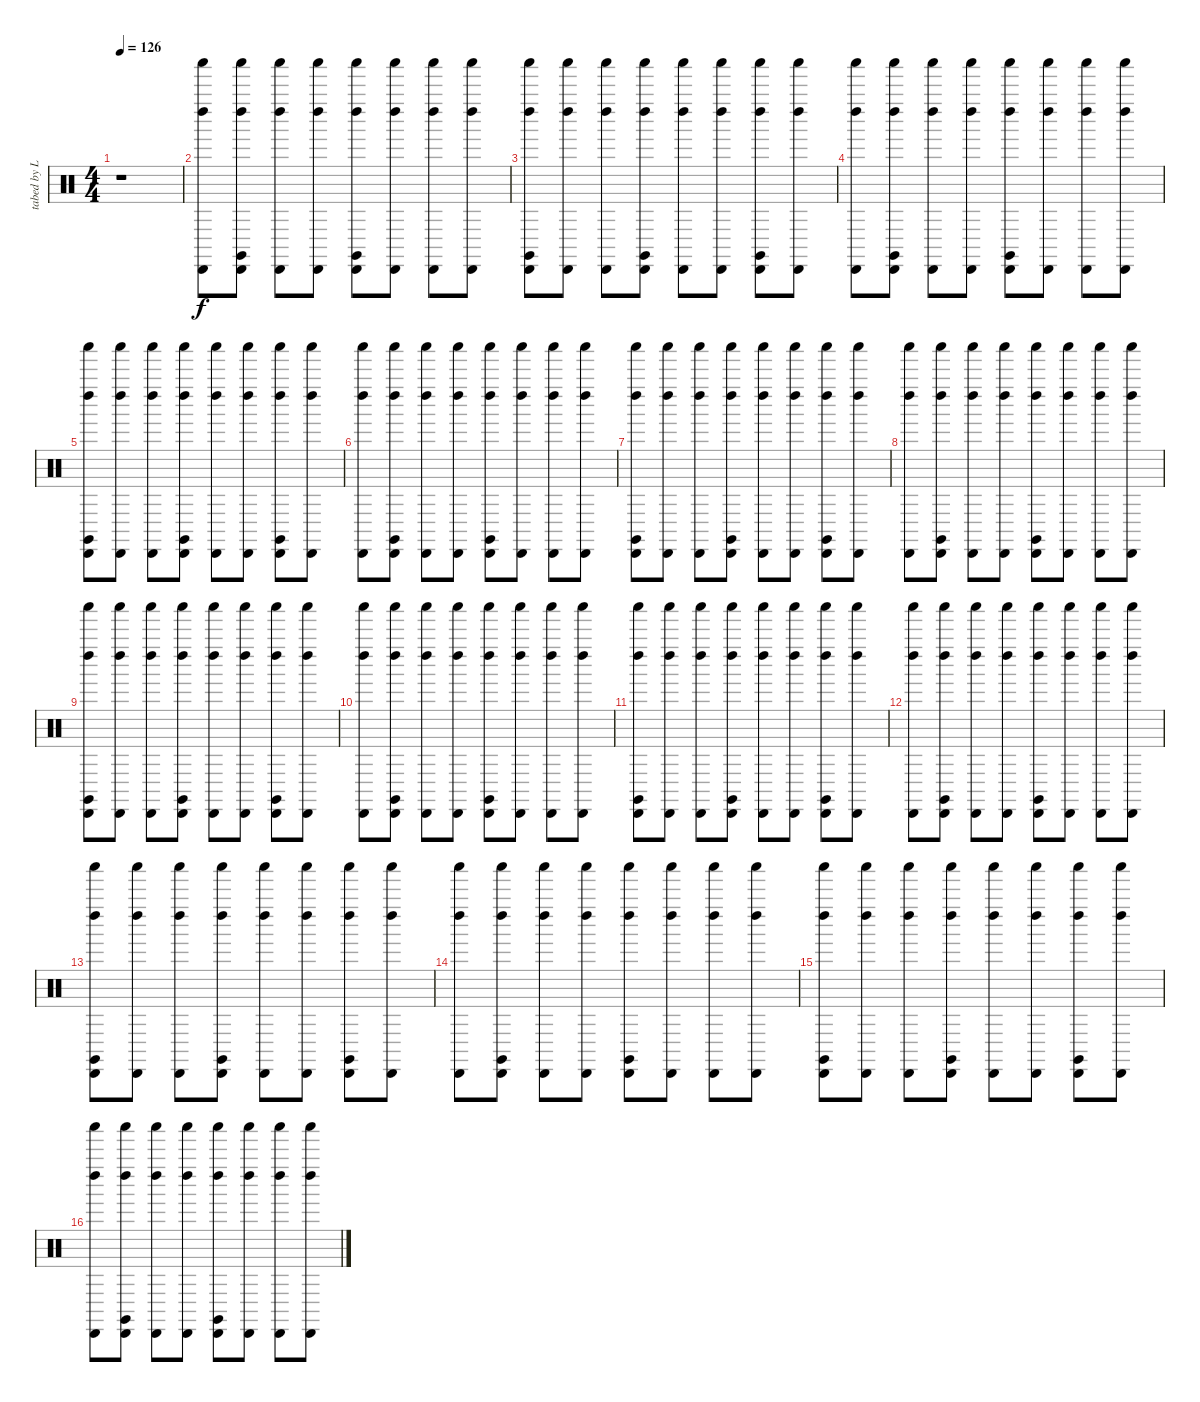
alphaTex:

\track ("tabed by Leonid" "tabed by L") {instrument percussion}
\staff {score}
\articulation defaults
\ts (4 4)
\tempo 126
\clef neutral
\ks c
r.1{dy f} |
("Cabasa (hit)" "Left Maraca (hit)" "Shaker (hit)").8 ("Cabasa (hit)" "Left Maraca (hit)" "Shaker (hit)" "Claves (hit)").8 ("Cabasa (hit)" "Left Maraca (hit)" "Shaker (hit)").8 ("Cabasa (hit)" "Left Maraca (hit)" "Shaker (hit)").8 ("Cabasa (hit)" "Left Maraca (hit)" "Shaker (hit)" "Claves (hit)").8 ("Cabasa (hit)" "Left Maraca (hit)" "Shaker (hit)").8 ("Cabasa (hit)" "Left Maraca (hit)" "Shaker (hit)").8 ("Cabasa (hit)" "Left Maraca (hit)" "Shaker (hit)").8 |
("Cabasa (hit)" "Left Maraca (hit)" "Shaker (hit)" "Claves (hit)").8 ("Cabasa (hit)" "Left Maraca (hit)" "Shaker (hit)").8 ("Cabasa (hit)" "Left Maraca (hit)" "Shaker (hit)").8 ("Cabasa (hit)" "Left Maraca (hit)" "Shaker (hit)" "Claves (hit)").8 ("Cabasa (hit)" "Left Maraca (hit)" "Shaker (hit)").8 ("Cabasa (hit)" "Left Maraca (hit)" "Shaker (hit)").8 ("Cabasa (hit)" "Left Maraca (hit)" "Shaker (hit)" "Claves (hit)").8 ("Cabasa (hit)" "Left Maraca (hit)" "Shaker (hit)").8 |
("Left Maraca (hit)" "Shaker (hit)" "Cabasa (hit)").8 ("Left Maraca (hit)" "Shaker (hit)" "Cabasa (hit)" "Claves (hit)").8 ("Left Maraca (hit)" "Shaker (hit)" "Cabasa (hit)").8 ("Left Maraca (hit)" "Shaker (hit)" "Cabasa (hit)").8 ("Left Maraca (hit)" "Shaker (hit)" "Cabasa (hit)" "Claves (hit)").8 ("Left Maraca (hit)" "Shaker (hit)" "Cabasa (hit)").8 ("Left Maraca (hit)" "Shaker (hit)" "Cabasa (hit)").8 ("Left Maraca (hit)" "Shaker (hit)" "Cabasa (hit)").8 |
("Left Maraca (hit)" "Shaker (hit)" "Cabasa (hit)" "Claves (hit)").8 ("Left Maraca (hit)" "Shaker (hit)" "Cabasa (hit)").8 ("Left Maraca (hit)" "Shaker (hit)" "Cabasa (hit)").8 ("Left Maraca (hit)" "Shaker (hit)" "Cabasa (hit)" "Claves (hit)").8 ("Left Maraca (hit)" "Shaker (hit)" "Cabasa (hit)").8 ("Left Maraca (hit)" "Shaker (hit)" "Cabasa (hit)").8 ("Left Maraca (hit)" "Shaker (hit)" "Cabasa (hit)" "Claves (hit)").8 ("Left Maraca (hit)" "Shaker (hit)" "Cabasa (hit)").8 |
("Shaker (hit)" "Cabasa (hit)" "Left Maraca (hit)").8 ("Shaker (hit)" "Cabasa (hit)" "Left Maraca (hit)" "Claves (hit)").8 ("Shaker (hit)" "Cabasa (hit)" "Left Maraca (hit)").8 ("Shaker (hit)" "Cabasa (hit)" "Left Maraca (hit)").8 ("Shaker (hit)" "Cabasa (hit)" "Left Maraca (hit)" "Claves (hit)").8 ("Shaker (hit)" "Cabasa (hit)" "Left Maraca (hit)").8 ("Shaker (hit)" "Cabasa (hit)" "Left Maraca (hit)").8 ("Shaker (hit)" "Cabasa (hit)" "Left Maraca (hit)").8 |
("Shaker (hit)" "Cabasa (hit)" "Left Maraca (hit)" "Claves (hit)").8 ("Shaker (hit)" "Cabasa (hit)" "Left Maraca (hit)").8 ("Shaker (hit)" "Cabasa (hit)" "Left Maraca (hit)").8 ("Shaker (hit)" "Cabasa (hit)" "Left Maraca (hit)" "Claves (hit)").8 ("Shaker (hit)" "Cabasa (hit)" "Left Maraca (hit)").8 ("Shaker (hit)" "Cabasa (hit)" "Left Maraca (hit)").8 ("Shaker (hit)" "Cabasa (hit)" "Left Maraca (hit)" "Claves (hit)").8 ("Shaker (hit)" "Cabasa (hit)" "Left Maraca (hit)").8 |
("Cabasa (hit)" "Left Maraca (hit)" "Shaker (hit)").8 ("Cabasa (hit)" "Left Maraca (hit)" "Shaker (hit)" "Claves (hit)").8 ("Cabasa (hit)" "Left Maraca (hit)" "Shaker (hit)").8 ("Cabasa (hit)" "Left Maraca (hit)" "Shaker (hit)").8 ("Cabasa (hit)" "Left Maraca (hit)" "Shaker (hit)" "Claves (hit)").8 ("Cabasa (hit)" "Left Maraca (hit)" "Shaker (hit)").8 ("Cabasa (hit)" "Left Maraca (hit)" "Shaker (hit)").8 ("Cabasa (hit)" "Left Maraca (hit)" "Shaker (hit)").8 |
("Cabasa (hit)" "Left Maraca (hit)" "Shaker (hit)" "Claves (hit)").8 ("Cabasa (hit)" "Left Maraca (hit)" "Shaker (hit)").8 ("Cabasa (hit)" "Left Maraca (hit)" "Shaker (hit)").8 ("Cabasa (hit)" "Left Maraca (hit)" "Shaker (hit)" "Claves (hit)").8 ("Cabasa (hit)" "Left Maraca (hit)" "Shaker (hit)").8 ("Cabasa (hit)" "Left Maraca (hit)" "Shaker (hit)").8 ("Cabasa (hit)" "Left Maraca (hit)" "Shaker (hit)" "Claves (hit)").8 ("Cabasa (hit)" "Left Maraca (hit)" "Shaker (hit)").8 |
("Left Maraca (hit)" "Cabasa (hit)" "Shaker (hit)").8 ("Left Maraca (hit)" "Cabasa (hit)" "Shaker (hit)" "Claves (hit)").8 ("Left Maraca (hit)" "Cabasa (hit)" "Shaker (hit)").8 ("Left Maraca (hit)" "Cabasa (hit)" "Shaker (hit)").8 ("Left Maraca (hit)" "Cabasa (hit)" "Shaker (hit)" "Claves (hit)").8 ("Left Maraca (hit)" "Cabasa (hit)" "Shaker (hit)").8 ("Left Maraca (hit)" "Cabasa (hit)" "Shaker (hit)").8 ("Left Maraca (hit)" "Cabasa (hit)" "Shaker (hit)").8 |
("Left Maraca (hit)" "Cabasa (hit)" "Shaker (hit)" "Claves (hit)").8 ("Left Maraca (hit)" "Cabasa (hit)" "Shaker (hit)").8 ("Left Maraca (hit)" "Cabasa (hit)" "Shaker (hit)").8 ("Left Maraca (hit)" "Cabasa (hit)" "Shaker (hit)" "Claves (hit)").8 ("Left Maraca (hit)" "Cabasa (hit)" "Shaker (hit)").8 ("Left Maraca (hit)" "Cabasa (hit)" "Shaker (hit)").8 ("Left Maraca (hit)" "Cabasa (hit)" "Shaker (hit)" "Claves (hit)").8 ("Left Maraca (hit)" "Cabasa (hit)" "Shaker (hit)").8 |
("Shaker (hit)" "Cabasa (hit)" "Left Maraca (hit)").8 ("Shaker (hit)" "Cabasa (hit)" "Left Maraca (hit)" "Claves (hit)").8 ("Shaker (hit)" "Cabasa (hit)" "Left Maraca (hit)").8 ("Shaker (hit)" "Cabasa (hit)" "Left Maraca (hit)").8 ("Shaker (hit)" "Cabasa (hit)" "Left Maraca (hit)" "Claves (hit)").8 ("Shaker (hit)" "Cabasa (hit)" "Left Maraca (hit)").8 ("Shaker (hit)" "Cabasa (hit)" "Left Maraca (hit)").8 ("Shaker (hit)" "Cabasa (hit)" "Left Maraca (hit)").8 |
("Shaker (hit)" "Cabasa (hit)" "Left Maraca (hit)" "Claves (hit)").8 ("Shaker (hit)" "Cabasa (hit)" "Left Maraca (hit)").8 ("Shaker (hit)" "Cabasa (hit)" "Left Maraca (hit)").8 ("Shaker (hit)" "Cabasa (hit)" "Left Maraca (hit)" "Claves (hit)").8 ("Shaker (hit)" "Cabasa (hit)" "Left Maraca (hit)").8 ("Shaker (hit)" "Cabasa (hit)" "Left Maraca (hit)").8 ("Shaker (hit)" "Cabasa (hit)" "Left Maraca (hit)" "Claves (hit)").8 ("Shaker (hit)" "Cabasa (hit)" "Left Maraca (hit)").8 |
("Shaker (hit)" "Cabasa (hit)" "Left Maraca (hit)").8 ("Shaker (hit)" "Cabasa (hit)" "Left Maraca (hit)" "Claves (hit)").8 ("Shaker (hit)" "Cabasa (hit)" "Left Maraca (hit)").8 ("Shaker (hit)" "Cabasa (hit)" "Left Maraca (hit)").8 ("Shaker (hit)" "Cabasa (hit)" "Left Maraca (hit)" "Claves (hit)").8 ("Shaker (hit)" "Cabasa (hit)" "Left Maraca (hit)").8 ("Shaker (hit)" "Cabasa (hit)" "Left Maraca (hit)").8 ("Shaker (hit)" "Cabasa (hit)" "Left Maraca (hit)").8 |
("Shaker (hit)" "Cabasa (hit)" "Left Maraca (hit)" "Claves (hit)").8 ("Shaker (hit)" "Cabasa (hit)" "Left Maraca (hit)").8 ("Shaker (hit)" "Cabasa (hit)" "Left Maraca (hit)").8 ("Shaker (hit)" "Cabasa (hit)" "Left Maraca (hit)" "Claves (hit)").8 ("Shaker (hit)" "Cabasa (hit)" "Left Maraca (hit)").8 ("Shaker (hit)" "Cabasa (hit)" "Left Maraca (hit)").8 ("Shaker (hit)" "Cabasa (hit)" "Left Maraca (hit)" "Claves (hit)").8 ("Shaker (hit)" "Cabasa (hit)" "Left Maraca (hit)").8 |
("Left Maraca (hit)" "Shaker (hit)" "Cabasa (hit)").8 ("Left Maraca (hit)" "Shaker (hit)" "Cabasa (hit)" "Claves (hit)").8 ("Left Maraca (hit)" "Shaker (hit)" "Cabasa (hit)").8 ("Left Maraca (hit)" "Shaker (hit)" "Cabasa (hit)").8 ("Left Maraca (hit)" "Shaker (hit)" "Cabasa (hit)" "Claves (hit)").8 ("Left Maraca (hit)" "Shaker (hit)" "Cabasa (hit)").8 ("Left Maraca (hit)" "Shaker (hit)" "Cabasa (hit)").8 ("Left Maraca (hit)" "Shaker (hit)" "Cabasa (hit)").8
